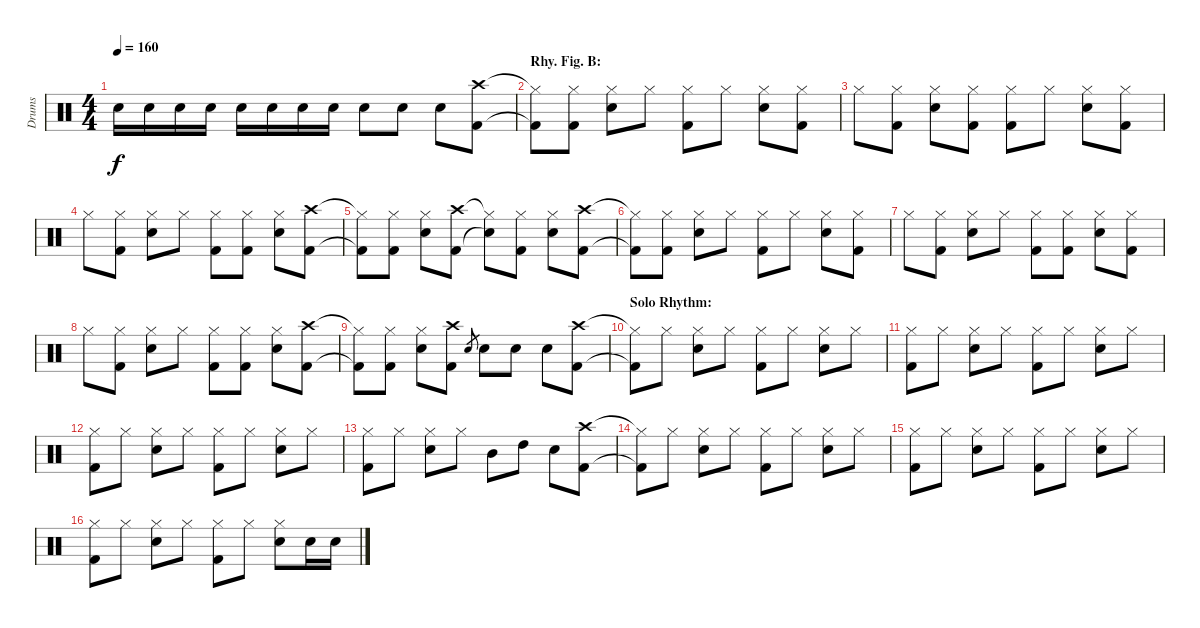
\track ("Drums" "Drums") {instrument percussion}
\staff {score}
\articulation defaults
\ts (4 4)
\tempo 160
\clef neutral
\ks c "Electric Snare (hit)".16{dy f} "Electric Snare (hit)".16 "Electric Snare (hit)".16 "Electric Snare (hit)".16 "Electric Snare (hit)".16 "Electric Snare (hit)".16 "Electric Snare (hit)".16 "Electric Snare (hit)".16 "Electric Snare (hit)".8 "Electric Snare (hit)".8 "Electric Snare (hit)".8
("Crash high (hit)" "Kick (hit) 2").8 |
\section ("" "Rhy. Fig. B:")
("Hi-Hat (closed)"{t} "Kick (hit) 2"{t}).8 ("Hi-Hat (closed)" "Kick (hit) 2").8 ("Hi-Hat (closed)" "Electric Snare (hit)").8 "Hi-Hat (closed)".8 ("Hi-Hat (closed)" "Kick (hit) 2").8 "Hi-Hat (closed)".8 ("Hi-Hat (closed)" "Electric Snare (hit)").8 ("Hi-Hat (closed)" "Kick (hit) 2").8 |
"Hi-Hat (closed)".8 ("Hi-Hat (closed)" "Kick (hit) 2").8 ("Hi-Hat (closed)" "Electric Snare (hit)").8 ("Hi-Hat (closed)" "Kick (hit) 2").8 ("Hi-Hat (closed)" "Kick (hit) 2").8 "Hi-Hat (closed)".8 ("Hi-Hat (closed)" "Electric Snare (hit)").8 ("Hi-Hat (closed)" "Kick (hit) 2").8 |
"Hi-Hat (closed)".8 ("Hi-Hat (closed)" "Kick (hit) 2").8 ("Hi-Hat (closed)" "Electric Snare (hit)").8 "Hi-Hat (closed)".8 ("Hi-Hat (closed)" "Kick (hit) 2").8 ("Hi-Hat (closed)" "Kick (hit) 2").8 ("Hi-Hat (closed)" "Electric Snare (hit)").8 ("Crash high (hit)" "Kick (hit) 2").8 |
("Hi-Hat (closed)"{t} "Kick (hit) 2"{t}).8 ("Hi-Hat (closed)" "Kick (hit) 2").8 ("Hi-Hat (closed)" "Electric Snare (hit)").8 ("Crash high (hit)" "Kick (hit) 2").8 ("Hi-Hat (closed)"{t} "Snare (hit)"{t}).8 ("Hi-Hat (closed)" "Kick (hit) 2").8 ("Hi-Hat (closed)" "Electric Snare (hit)").8 ("Crash high (hit)" "Kick (hit) 2").8 |
("Hi-Hat (closed)"{t} "Kick (hit) 2"{t}).8 ("Hi-Hat (closed)" "Kick (hit) 2").8 ("Hi-Hat (closed)" "Electric Snare (hit)").8 "Hi-Hat (closed)".8 ("Hi-Hat (closed)" "Kick (hit) 2").8 "Hi-Hat (closed)".8 ("Hi-Hat (closed)" "Electric Snare (hit)").8 ("Hi-Hat (closed)" "Kick (hit) 2").8 |
"Hi-Hat (closed)".8 ("Hi-Hat (closed)" "Kick (hit) 2").8 ("Hi-Hat (closed)" "Electric Snare (hit)").8 "Hi-Hat (closed)".8 ("Hi-Hat (closed)" "Kick (hit) 2").8 ("Hi-Hat (closed)" "Kick (hit) 2").8 ("Hi-Hat (closed)" "Electric Snare (hit)").8 ("Hi-Hat (closed)" "Kick (hit) 2").8 |
"Hi-Hat (closed)".8 ("Hi-Hat (closed)" "Kick (hit) 2").8 ("Hi-Hat (closed)" "Electric Snare (hit)").8 "Hi-Hat (closed)".8 ("Hi-Hat (closed)" "Kick (hit) 2").8 ("Hi-Hat (closed)" "Kick (hit) 2").8 ("Hi-Hat (closed)" "Electric Snare (hit)").8 ("Crash high (hit)" "Kick (hit) 2").8 |
("Hi-Hat (closed)"{t} "Kick (hit) 2"{t}).8 ("Hi-Hat (closed)" "Kick (hit) 2").8 ("Hi-Hat (closed)" "Electric Snare (hit)").8 ("Crash high (hit)" "Kick (hit) 2").8 "Electric Snare (hit)".8{gr} "Electric Snare (hit)".8 "Electric Snare (hit)".8 "Electric Snare (hit)".8 ("Crash high (hit)" "Kick (hit) 2").8 |
\section ("" "Solo Rhythm:")
("Hi-Hat (closed)"{t} "Kick (hit) 2"{t}).8 "Hi-Hat (closed)".8 ("Hi-Hat (closed)" "Electric Snare (hit)").8 "Hi-Hat (closed)".8 ("Hi-Hat (closed)" "Kick (hit) 2").8 "Hi-Hat (closed)".8 ("Hi-Hat (closed)" "Electric Snare (hit)").8 "Hi-Hat (closed)".8 |
("Hi-Hat (closed)" "Kick (hit) 2").8 "Hi-Hat (closed)".8 ("Hi-Hat (closed)" "Electric Snare (hit)").8 "Hi-Hat (closed)".8 ("Hi-Hat (closed)" "Kick (hit) 2").8 "Hi-Hat (closed)".8 ("Hi-Hat (closed)" "Electric Snare (hit)").8 "Hi-Hat (closed)".8 |
("Hi-Hat (closed)" "Kick (hit) 2").8 "Hi-Hat (closed)".8 ("Hi-Hat (closed)" "Electric Snare (hit)").8 "Hi-Hat (closed)".8 ("Hi-Hat (closed)" "Kick (hit) 2").8 "Hi-Hat (closed)".8 ("Hi-Hat (closed)" "Electric Snare (hit)").8 "Hi-Hat (closed)".8 |
("Hi-Hat (closed)" "Kick (hit) 2").8 "Hi-Hat (closed)".8 ("Hi-Hat (closed)" "Electric Snare (hit)").8 "Hi-Hat (closed)".8 "Mid Tom (hit)".8 "High Tom (hit)".8 "Electric Snare (hit)".8 ("Crash high (hit)" "Kick (hit) 2").8 |
("Hi-Hat (closed)"{t} "Kick (hit) 2"{t}).8 "Hi-Hat (closed)".8 ("Hi-Hat (closed)" "Electric Snare (hit)").8 "Hi-Hat (closed)".8 ("Hi-Hat (closed)" "Kick (hit) 2").8 "Hi-Hat (closed)".8 ("Hi-Hat (closed)" "Electric Snare (hit)").8 "Hi-Hat (closed)".8 |
("Hi-Hat (closed)" "Kick (hit) 2").8 "Hi-Hat (closed)".8 ("Hi-Hat (closed)" "Electric Snare (hit)").8 "Hi-Hat (closed)".8 ("Hi-Hat (closed)" "Kick (hit) 2").8 "Hi-Hat (closed)".8 ("Hi-Hat (closed)" "Electric Snare (hit)").8 "Hi-Hat (closed)".8 |
("Hi-Hat (closed)" "Kick (hit) 2").8 "Hi-Hat (closed)".8 ("Hi-Hat (closed)" "Electric Snare (hit)").8 "Hi-Hat (closed)".8 ("Hi-Hat (closed)" "Kick (hit) 2").8 "Hi-Hat (closed)".8 ("Hi-Hat (closed)" "Electric Snare (hit)").8 "Electric Snare (hit)".16 "Electric Snare (hit)".16
